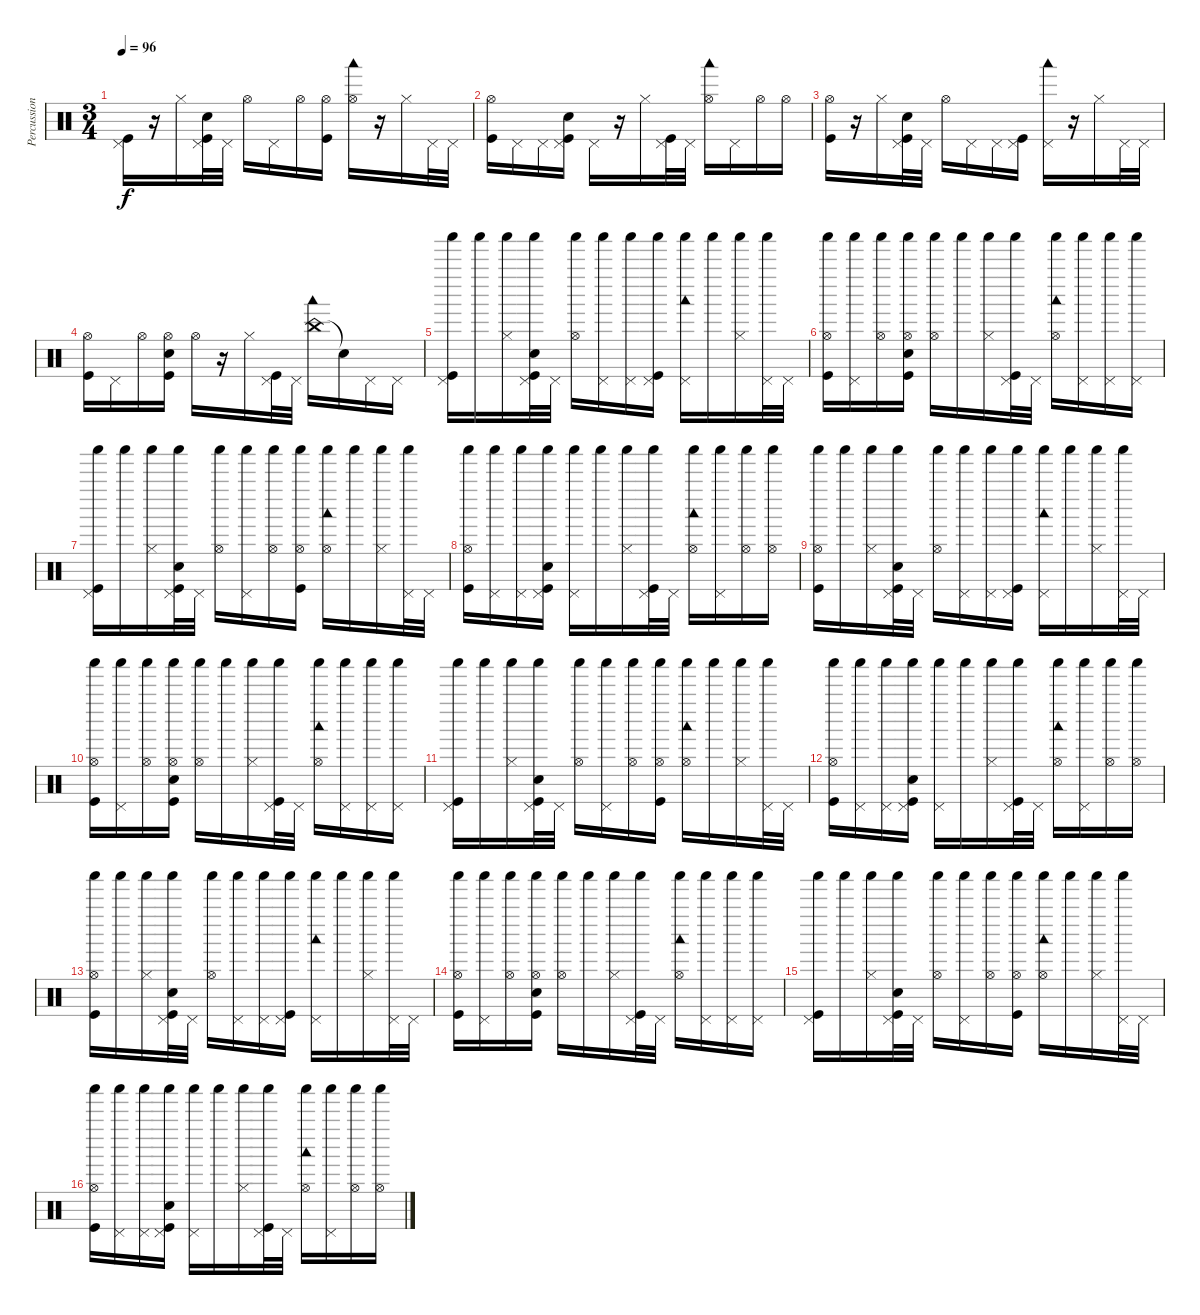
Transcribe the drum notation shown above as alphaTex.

\track ("Percussions" "Percussion") {instrument percussion}
\staff {score}
\articulation defaults
\ts (3 4)
\tempo 96
\clef neutral
\ks c
("Pedal Hi-Hat (hit)" "Kick (hit)").16{dy f} r.16 "Hi-Hat (closed)".16 ("Pedal Hi-Hat (hit)" "Metronome (bell)" "Kick (hit)").32 "Pedal Hi-Hat (hit)".32 "Hi-Hat (open)".16 "Pedal Hi-Hat (hit)".16 "Hi-Hat (open)".16 ("Hi-Hat (open)" "Kick (hit)").16 ("Hi-Hat (open)" "Woodblock low (hit)").16 r.16 "Hi-Hat (closed)".16 "Pedal Hi-Hat (hit)".32 "Pedal Hi-Hat (hit)".32 |
("Hi-Hat (open)" "Kick (hit)").16 "Pedal Hi-Hat (hit)".16 "Pedal Hi-Hat (hit)".16 ("Pedal Hi-Hat (hit)" "Metronome (bell)" "Kick (hit)").16 "Pedal Hi-Hat (hit)".16 r.16 "Hi-Hat (closed)".16 ("Pedal Hi-Hat (hit)" "Kick (hit)").32 "Pedal Hi-Hat (hit)".32 ("Hi-Hat (open)" "Woodblock low (hit)").16 "Pedal Hi-Hat (hit)".16 "Hi-Hat (open)".16 "Hi-Hat (open)".16 |
("Hi-Hat (open)" "Kick (hit)").16 r.16 "Hi-Hat (closed)".16 ("Pedal Hi-Hat (hit)" "Metronome (bell)" "Kick (hit)").32 "Pedal Hi-Hat (hit)".32 "Hi-Hat (open)".16 "Pedal Hi-Hat (hit)".16 "Pedal Hi-Hat (hit)".16 ("Pedal Hi-Hat (hit)" "Kick (hit)").16 ("Pedal Hi-Hat (hit)" "Woodblock low (hit)").16 r.16 "Hi-Hat (closed)".16 "Pedal Hi-Hat (hit)".32 "Pedal Hi-Hat (hit)".32 |
("Hi-Hat (open)" "Kick (hit)").16 "Pedal Hi-Hat (hit)".16 "Hi-Hat (open)".16 ("Hi-Hat (open)" "Metronome (bell)" "Kick (hit)").16 "Hi-Hat (open)".16 r.16 "Hi-Hat (closed)".16 ("Pedal Hi-Hat (hit)" "Kick (hit)").32 "Pedal Hi-Hat (hit)".32 ("China (hit)" "Woodblock low (hit)").16 "Snare (hit)"{t}.16 "Pedal Hi-Hat (hit)".16 "Pedal Hi-Hat (hit)".16 |
("Pedal Hi-Hat (hit)" "Shaker (hit)" "Kick (hit)").16 "Shaker (hit)".16 ("Hi-Hat (closed)" "Shaker (hit)").16 ("Pedal Hi-Hat (hit)" "Shaker (hit)" "Metronome (bell)" "Kick (hit)").32 "Pedal Hi-Hat (hit)".32 ("Hi-Hat (open)" "Shaker (hit)").16 ("Pedal Hi-Hat (hit)" "Shaker (hit)").16 ("Pedal Hi-Hat (hit)" "Shaker (hit)").16 ("Pedal Hi-Hat (hit)" "Shaker (hit)" "Kick (hit)").16 ("Pedal Hi-Hat (hit)" "Shaker (hit)" "Woodblock low (hit)").16 "Shaker (hit)".16 ("Hi-Hat (closed)" "Shaker (hit)").16 ("Pedal Hi-Hat (hit)" "Shaker (hit)").32 "Pedal Hi-Hat (hit)".32 |
("Hi-Hat (open)" "Shaker (hit)" "Kick (hit)").16 ("Pedal Hi-Hat (hit)" "Shaker (hit)").16 ("Hi-Hat (open)" "Shaker (hit)").16 ("Hi-Hat (open)" "Shaker (hit)" "Metronome (bell)" "Kick (hit)").16 ("Hi-Hat (open)" "Shaker (hit)").16 "Shaker (hit)".16 ("Hi-Hat (closed)" "Shaker (hit)").16 ("Pedal Hi-Hat (hit)" "Shaker (hit)" "Kick (hit)").32 "Pedal Hi-Hat (hit)".32 ("Hi-Hat (open)" "Shaker (hit)" "Woodblock low (hit)").16 ("Pedal Hi-Hat (hit)" "Shaker (hit)").16 ("Pedal Hi-Hat (hit)" "Shaker (hit)").16 ("Pedal Hi-Hat (hit)" "Shaker (hit)").16 |
("Pedal Hi-Hat (hit)" "Shaker (hit)" "Kick (hit)").16 "Shaker (hit)".16 ("Hi-Hat (closed)" "Shaker (hit)").16 ("Pedal Hi-Hat (hit)" "Shaker (hit)" "Metronome (bell)" "Kick (hit)").32 "Pedal Hi-Hat (hit)".32 ("Hi-Hat (open)" "Shaker (hit)").16 ("Pedal Hi-Hat (hit)" "Shaker (hit)").16 ("Hi-Hat (open)" "Shaker (hit)").16 ("Hi-Hat (open)" "Shaker (hit)" "Kick (hit)").16 ("Hi-Hat (open)" "Shaker (hit)" "Woodblock low (hit)").16 "Shaker (hit)".16 ("Hi-Hat (closed)" "Shaker (hit)").16 ("Pedal Hi-Hat (hit)" "Shaker (hit)").32 "Pedal Hi-Hat (hit)".32 |
("Hi-Hat (open)" "Shaker (hit)" "Kick (hit)").16 ("Pedal Hi-Hat (hit)" "Shaker (hit)").16 ("Pedal Hi-Hat (hit)" "Shaker (hit)").16 ("Pedal Hi-Hat (hit)" "Shaker (hit)" "Metronome (bell)" "Kick (hit)").16 ("Pedal Hi-Hat (hit)" "Shaker (hit)").16 "Shaker (hit)".16 ("Hi-Hat (closed)" "Shaker (hit)").16 ("Pedal Hi-Hat (hit)" "Shaker (hit)" "Kick (hit)").32 "Pedal Hi-Hat (hit)".32 ("Hi-Hat (open)" "Shaker (hit)" "Woodblock low (hit)").16 ("Pedal Hi-Hat (hit)" "Shaker (hit)").16 ("Hi-Hat (open)" "Shaker (hit)").16 ("Hi-Hat (open)" "Shaker (hit)").16 |
("Hi-Hat (open)" "Shaker (hit)" "Kick (hit)").16 "Shaker (hit)".16 ("Hi-Hat (closed)" "Shaker (hit)").16 ("Pedal Hi-Hat (hit)" "Shaker (hit)" "Metronome (bell)" "Kick (hit)").32 "Pedal Hi-Hat (hit)".32 ("Hi-Hat (open)" "Shaker (hit)").16 ("Pedal Hi-Hat (hit)" "Shaker (hit)").16 ("Pedal Hi-Hat (hit)" "Shaker (hit)").16 ("Pedal Hi-Hat (hit)" "Shaker (hit)" "Kick (hit)").16 ("Pedal Hi-Hat (hit)" "Shaker (hit)" "Woodblock low (hit)").16 "Shaker (hit)".16 ("Hi-Hat (closed)" "Shaker (hit)").16 ("Pedal Hi-Hat (hit)" "Shaker (hit)").32 "Pedal Hi-Hat (hit)".32 |
("Hi-Hat (open)" "Shaker (hit)" "Kick (hit)").16 ("Pedal Hi-Hat (hit)" "Shaker (hit)").16 ("Hi-Hat (open)" "Shaker (hit)").16 ("Hi-Hat (open)" "Shaker (hit)" "Metronome (bell)" "Kick (hit)").16 ("Hi-Hat (open)" "Shaker (hit)").16 "Shaker (hit)".16 ("Hi-Hat (closed)" "Shaker (hit)").16 ("Pedal Hi-Hat (hit)" "Shaker (hit)" "Kick (hit)").32 "Pedal Hi-Hat (hit)".32 ("Hi-Hat (open)" "Shaker (hit)" "Woodblock low (hit)").16 ("Pedal Hi-Hat (hit)" "Shaker (hit)").16 ("Pedal Hi-Hat (hit)" "Shaker (hit)").16 ("Pedal Hi-Hat (hit)" "Shaker (hit)").16 |
("Pedal Hi-Hat (hit)" "Shaker (hit)" "Kick (hit)").16 "Shaker (hit)".16 ("Hi-Hat (closed)" "Shaker (hit)").16 ("Pedal Hi-Hat (hit)" "Shaker (hit)" "Metronome (bell)" "Kick (hit)").32 "Pedal Hi-Hat (hit)".32 ("Hi-Hat (open)" "Shaker (hit)").16 ("Pedal Hi-Hat (hit)" "Shaker (hit)").16 ("Hi-Hat (open)" "Shaker (hit)").16 ("Hi-Hat (open)" "Shaker (hit)" "Kick (hit)").16 ("Hi-Hat (open)" "Shaker (hit)" "Woodblock low (hit)").16 "Shaker (hit)".16 ("Hi-Hat (closed)" "Shaker (hit)").16 ("Pedal Hi-Hat (hit)" "Shaker (hit)").32 "Pedal Hi-Hat (hit)".32 |
("Hi-Hat (open)" "Shaker (hit)" "Kick (hit)").16 ("Pedal Hi-Hat (hit)" "Shaker (hit)").16 ("Pedal Hi-Hat (hit)" "Shaker (hit)").16 ("Pedal Hi-Hat (hit)" "Shaker (hit)" "Metronome (bell)" "Kick (hit)").16 ("Pedal Hi-Hat (hit)" "Shaker (hit)").16 "Shaker (hit)".16 ("Hi-Hat (closed)" "Shaker (hit)").16 ("Pedal Hi-Hat (hit)" "Shaker (hit)" "Kick (hit)").32 "Pedal Hi-Hat (hit)".32 ("Hi-Hat (open)" "Shaker (hit)" "Woodblock low (hit)").16 ("Pedal Hi-Hat (hit)" "Shaker (hit)").16 ("Hi-Hat (open)" "Shaker (hit)").16 ("Hi-Hat (open)" "Shaker (hit)").16 |
("Hi-Hat (open)" "Shaker (hit)" "Kick (hit)").16 "Shaker (hit)".16 ("Hi-Hat (closed)" "Shaker (hit)").16 ("Pedal Hi-Hat (hit)" "Shaker (hit)" "Metronome (bell)" "Kick (hit)").32 "Pedal Hi-Hat (hit)".32 ("Hi-Hat (open)" "Shaker (hit)").16 ("Pedal Hi-Hat (hit)" "Shaker (hit)").16 ("Pedal Hi-Hat (hit)" "Shaker (hit)").16 ("Pedal Hi-Hat (hit)" "Shaker (hit)" "Kick (hit)").16 ("Pedal Hi-Hat (hit)" "Shaker (hit)" "Woodblock low (hit)").16 "Shaker (hit)".16 ("Hi-Hat (closed)" "Shaker (hit)").16 ("Pedal Hi-Hat (hit)" "Shaker (hit)").32 "Pedal Hi-Hat (hit)".32 |
("Hi-Hat (open)" "Shaker (hit)" "Kick (hit)").16 ("Pedal Hi-Hat (hit)" "Shaker (hit)").16 ("Hi-Hat (open)" "Shaker (hit)").16 ("Hi-Hat (open)" "Shaker (hit)" "Metronome (bell)" "Kick (hit)").16 ("Hi-Hat (open)" "Shaker (hit)").16 "Shaker (hit)".16 ("Hi-Hat (closed)" "Shaker (hit)").16 ("Pedal Hi-Hat (hit)" "Shaker (hit)" "Kick (hit)").32 "Pedal Hi-Hat (hit)".32 ("Hi-Hat (open)" "Shaker (hit)" "Woodblock low (hit)").16 ("Pedal Hi-Hat (hit)" "Shaker (hit)").16 ("Pedal Hi-Hat (hit)" "Shaker (hit)").16 ("Pedal Hi-Hat (hit)" "Shaker (hit)").16 |
("Pedal Hi-Hat (hit)" "Shaker (hit)" "Kick (hit)").16 "Shaker (hit)".16 ("Hi-Hat (closed)" "Shaker (hit)").16 ("Pedal Hi-Hat (hit)" "Shaker (hit)" "Metronome (bell)" "Kick (hit)").32 "Pedal Hi-Hat (hit)".32 ("Hi-Hat (open)" "Shaker (hit)").16 ("Pedal Hi-Hat (hit)" "Shaker (hit)").16 ("Hi-Hat (open)" "Shaker (hit)").16 ("Hi-Hat (open)" "Shaker (hit)" "Kick (hit)").16 ("Hi-Hat (open)" "Shaker (hit)" "Woodblock low (hit)").16 "Shaker (hit)".16 ("Hi-Hat (closed)" "Shaker (hit)").16 ("Pedal Hi-Hat (hit)" "Shaker (hit)").32 "Pedal Hi-Hat (hit)".32 |
("Hi-Hat (open)" "Shaker (hit)" "Kick (hit)").16 ("Pedal Hi-Hat (hit)" "Shaker (hit)").16 ("Pedal Hi-Hat (hit)" "Shaker (hit)").16 ("Pedal Hi-Hat (hit)" "Shaker (hit)" "Metronome (bell)" "Kick (hit)").16 ("Pedal Hi-Hat (hit)" "Shaker (hit)").16 "Shaker (hit)".16 ("Hi-Hat (closed)" "Shaker (hit)").16 ("Pedal Hi-Hat (hit)" "Shaker (hit)" "Kick (hit)").32 "Pedal Hi-Hat (hit)".32 ("Hi-Hat (open)" "Shaker (hit)" "Woodblock low (hit)").16 ("Pedal Hi-Hat (hit)" "Shaker (hit)").16 ("Hi-Hat (open)" "Shaker (hit)").16 ("Hi-Hat (open)" "Shaker (hit)").16
